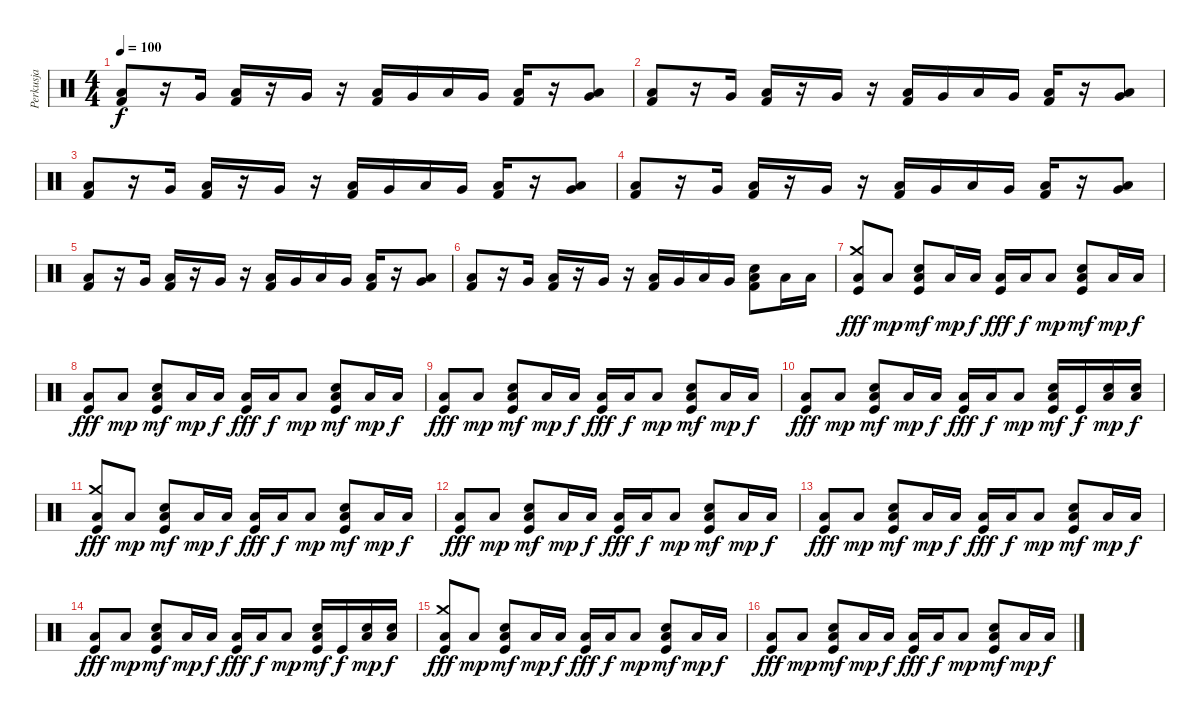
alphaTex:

\track ("Perkusja" "Perkusja") {instrument percussion}
\staff {score}
\articulation defaults
\ts (4 4)
\tempo 100
\clef neutral
\ks c
("Low Floor Tom (hit)" "Kick (hit) 2").8{dy f} r.16 "Very Low Tom (hit)".16 ("Low Floor Tom (hit)" "Kick (hit) 2").16 r.16 "Very Low Tom (hit)".16 r.16 ("Low Floor Tom (hit)" "Kick (hit) 2").16 "Very Low Tom (hit)".16 "Low Floor Tom (hit)".16 "Very Low Tom (hit)".16 ("Low Floor Tom (hit)" "Kick (hit) 2").16 r.16 ("Very Low Tom (hit)" "Low Floor Tom (hit)").8 |
("Low Floor Tom (hit)" "Kick (hit) 2").8 r.16 "Very Low Tom (hit)".16 ("Low Floor Tom (hit)" "Kick (hit) 2").16 r.16 "Very Low Tom (hit)".16 r.16 ("Low Floor Tom (hit)" "Kick (hit) 2").16 "Very Low Tom (hit)".16 "Low Floor Tom (hit)".16 "Very Low Tom (hit)".16 ("Low Floor Tom (hit)" "Kick (hit) 2").16 r.16 ("Very Low Tom (hit)" "Low Floor Tom (hit)").8 |
("Low Floor Tom (hit)" "Kick (hit) 2").8 r.16 "Very Low Tom (hit)".16 ("Low Floor Tom (hit)" "Kick (hit) 2").16 r.16 "Very Low Tom (hit)".16 r.16 ("Low Floor Tom (hit)" "Kick (hit) 2").16 "Very Low Tom (hit)".16 "Low Floor Tom (hit)".16 "Very Low Tom (hit)".16 ("Low Floor Tom (hit)" "Kick (hit) 2").16 r.16 ("Very Low Tom (hit)" "Low Floor Tom (hit)").8 |
("Low Floor Tom (hit)" "Kick (hit) 2").8 r.16 "Very Low Tom (hit)".16 ("Low Floor Tom (hit)" "Kick (hit) 2").16 r.16 "Very Low Tom (hit)".16 r.16 ("Low Floor Tom (hit)" "Kick (hit) 2").16 "Very Low Tom (hit)".16 "Low Floor Tom (hit)".16 "Very Low Tom (hit)".16 ("Low Floor Tom (hit)" "Kick (hit) 2").16 r.16 ("Very Low Tom (hit)" "Low Floor Tom (hit)").8 |
("Low Floor Tom (hit)" "Kick (hit) 2").8 r.16 "Very Low Tom (hit)".16 ("Low Floor Tom (hit)" "Kick (hit) 2").16 r.16 "Very Low Tom (hit)".16 r.16 ("Low Floor Tom (hit)" "Kick (hit) 2").16 "Very Low Tom (hit)".16 "Low Floor Tom (hit)".16 "Very Low Tom (hit)".16 ("Low Floor Tom (hit)" "Kick (hit) 2").16 r.16 ("Very Low Tom (hit)" "Low Floor Tom (hit)").8 |
("Low Floor Tom (hit)" "Kick (hit) 2").8 r.16 "Very Low Tom (hit)".16 ("Low Floor Tom (hit)" "Kick (hit) 2").16 r.16 "Very Low Tom (hit)".16 r.16 ("Low Floor Tom (hit)" "Kick (hit) 2").16 "Very Low Tom (hit)".16 "Low Floor Tom (hit)".16 "Very Low Tom (hit)".16 ("Low Floor Tom (hit)" "Electric Snare (hit)" "Kick (hit) 2").8 "Low Floor Tom (hit)".16 "Low Tom (hit)".16 |
("Crash medium (hit)" "Low Floor Tom (hit)" "Kick (hit)").8{dy fff} "Low Floor Tom (hit)".8{dy mp} ("Electric Snare (hit)" "Low Floor Tom (hit)" "Kick (hit)").8{dy mf} "Low Floor Tom (hit)".16{dy mp} "Low Tom (hit)".16{dy f} ("Low Floor Tom (hit)" "Kick (hit)").16{dy fff} "Low Tom (hit)".16{dy f} "Low Floor Tom (hit)".8{dy mp} ("Electric Snare (hit)" "Low Floor Tom (hit)" "Kick (hit)").8{dy mf} "Low Floor Tom (hit)".16{dy mp} "Low Tom (hit)".16{dy f} |
("Low Floor Tom (hit)" "Kick (hit)").8{dy fff} "Low Floor Tom (hit)".8{dy mp} ("Electric Snare (hit)" "Low Floor Tom (hit)" "Kick (hit)").8{dy mf} "Low Floor Tom (hit)".16{dy mp} "Low Tom (hit)".16{dy f} ("Low Floor Tom (hit)" "Kick (hit)").16{dy fff} "Low Tom (hit)".16{dy f} "Low Floor Tom (hit)".8{dy mp} ("Electric Snare (hit)" "Low Floor Tom (hit)" "Kick (hit)").8{dy mf} "Low Floor Tom (hit)".16{dy mp} "Low Tom (hit)".16{dy f} |
("Low Floor Tom (hit)" "Kick (hit)").8{dy fff} "Low Floor Tom (hit)".8{dy mp} ("Electric Snare (hit)" "Low Floor Tom (hit)" "Kick (hit)").8{dy mf} "Low Floor Tom (hit)".16{dy mp} "Low Tom (hit)".16{dy f} ("Low Floor Tom (hit)" "Kick (hit)").16{dy fff} "Low Tom (hit)".16{dy f} "Low Floor Tom (hit)".8{dy mp} ("Electric Snare (hit)" "Low Floor Tom (hit)" "Kick (hit)").8{dy mf} "Low Floor Tom (hit)".16{dy mp} "Low Tom (hit)".16{dy f} |
("Low Floor Tom (hit)" "Kick (hit)").8{dy fff} "Low Floor Tom (hit)".8{dy mp} ("Electric Snare (hit)" "Low Floor Tom (hit)" "Kick (hit)").8{dy mf} "Low Floor Tom (hit)".16{dy mp} "Low Tom (hit)".16{dy f} ("Low Floor Tom (hit)" "Kick (hit)").16{dy fff} "Low Tom (hit)".16{dy f} "Low Floor Tom (hit)".8{dy mp} ("Electric Snare (hit)" "Low Floor Tom (hit)" "Kick (hit)").16{dy mf} "Kick (hit)".16{dy f} ("Electric Snare (hit)" "Low Floor Tom (hit)").16{dy mp} ("Low Tom (hit)" "Electric Snare (hit)").16{dy f} |
("Crash medium (hit)" "Low Floor Tom (hit)" "Kick (hit)").8{dy fff} "Low Floor Tom (hit)".8{dy mp} ("Electric Snare (hit)" "Low Floor Tom (hit)" "Kick (hit)").8{dy mf} "Low Floor Tom (hit)".16{dy mp} "Low Tom (hit)".16{dy f} ("Low Floor Tom (hit)" "Kick (hit)").16{dy fff} "Low Tom (hit)".16{dy f} "Low Floor Tom (hit)".8{dy mp} ("Electric Snare (hit)" "Low Floor Tom (hit)" "Kick (hit)").8{dy mf} "Low Floor Tom (hit)".16{dy mp} "Low Tom (hit)".16{dy f} |
("Low Floor Tom (hit)" "Kick (hit)").8{dy fff} "Low Floor Tom (hit)".8{dy mp} ("Electric Snare (hit)" "Low Floor Tom (hit)" "Kick (hit)").8{dy mf} "Low Floor Tom (hit)".16{dy mp} "Low Tom (hit)".16{dy f} ("Low Floor Tom (hit)" "Kick (hit)").16{dy fff} "Low Tom (hit)".16{dy f} "Low Floor Tom (hit)".8{dy mp} ("Electric Snare (hit)" "Low Floor Tom (hit)" "Kick (hit)").8{dy mf} "Low Floor Tom (hit)".16{dy mp} "Low Tom (hit)".16{dy f} |
("Low Floor Tom (hit)" "Kick (hit)").8{dy fff} "Low Floor Tom (hit)".8{dy mp} ("Electric Snare (hit)" "Low Floor Tom (hit)" "Kick (hit)").8{dy mf} "Low Floor Tom (hit)".16{dy mp} "Low Tom (hit)".16{dy f} ("Low Floor Tom (hit)" "Kick (hit)").16{dy fff} "Low Tom (hit)".16{dy f} "Low Floor Tom (hit)".8{dy mp} ("Electric Snare (hit)" "Low Floor Tom (hit)" "Kick (hit)").8{dy mf} "Low Floor Tom (hit)".16{dy mp} "Low Tom (hit)".16{dy f} |
("Low Floor Tom (hit)" "Kick (hit)").8{dy fff} "Low Floor Tom (hit)".8{dy mp} ("Electric Snare (hit)" "Low Floor Tom (hit)" "Kick (hit)").8{dy mf} "Low Floor Tom (hit)".16{dy mp} "Low Tom (hit)".16{dy f} ("Low Floor Tom (hit)" "Kick (hit)").16{dy fff} "Low Tom (hit)".16{dy f} "Low Floor Tom (hit)".8{dy mp} ("Electric Snare (hit)" "Low Floor Tom (hit)" "Kick (hit)").16{dy mf} "Kick (hit)".16{dy f} ("Electric Snare (hit)" "Low Floor Tom (hit)").16{dy mp} ("Low Tom (hit)" "Electric Snare (hit)").16{dy f} |
("Crash medium (hit)" "Low Floor Tom (hit)" "Kick (hit)").8{dy fff} "Low Floor Tom (hit)".8{dy mp} ("Electric Snare (hit)" "Low Floor Tom (hit)" "Kick (hit)").8{dy mf} "Low Floor Tom (hit)".16{dy mp} "Low Tom (hit)".16{dy f} ("Low Floor Tom (hit)" "Kick (hit)").16{dy fff} "Low Tom (hit)".16{dy f} "Low Floor Tom (hit)".8{dy mp} ("Electric Snare (hit)" "Low Floor Tom (hit)" "Kick (hit)").8{dy mf} "Low Floor Tom (hit)".16{dy mp} "Low Tom (hit)".16{dy f} |
("Low Floor Tom (hit)" "Kick (hit)").8{dy fff} "Low Floor Tom (hit)".8{dy mp} ("Electric Snare (hit)" "Low Floor Tom (hit)" "Kick (hit)").8{dy mf} "Low Floor Tom (hit)".16{dy mp} "Low Tom (hit)".16{dy f} ("Low Floor Tom (hit)" "Kick (hit)").16{dy fff} "Low Tom (hit)".16{dy f} "Low Floor Tom (hit)".8{dy mp} ("Electric Snare (hit)" "Low Floor Tom (hit)" "Kick (hit)").8{dy mf} "Low Floor Tom (hit)".16{dy mp} "Low Tom (hit)".16{dy f}
